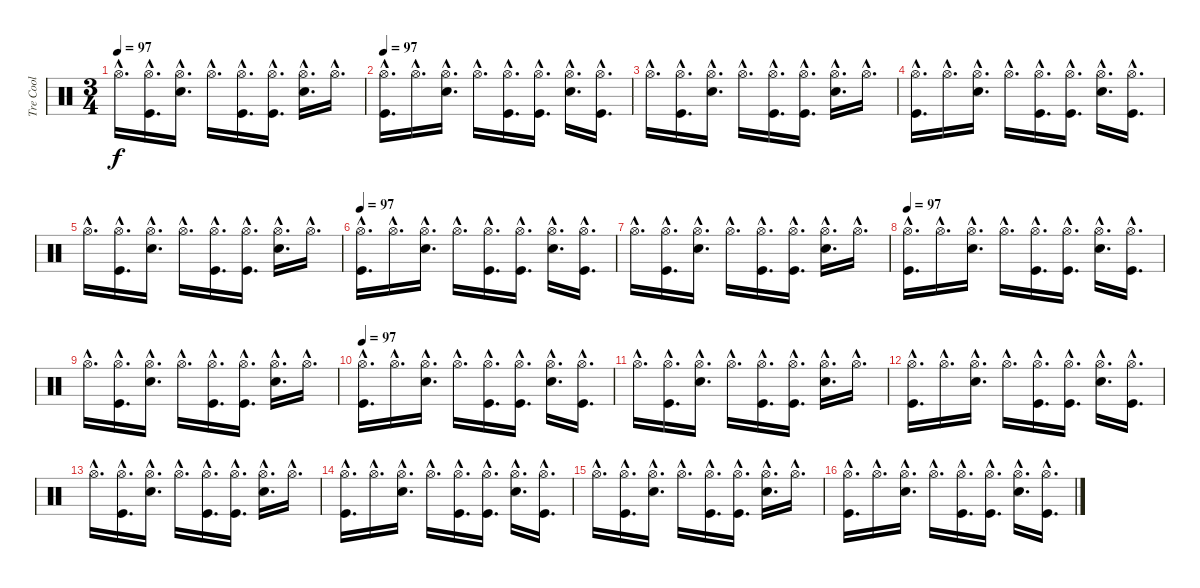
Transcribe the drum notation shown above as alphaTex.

\track ("Tre Cool" "Tre Cool") {instrument percussion}
\staff {score}
\articulation defaults
\ts (3 4)
\tempo 97
\clef neutral
\ks c "Hi-Hat (open)"{hac}.16{d dy f}
("Kick (hit)"{hac} "Hi-Hat (open)"{hac}).16{d} ("Snare (hit) 2"{hac} "Hi-Hat (open)"{hac}).16{d} "Hi-Hat (open)"{hac}.16{d} ("Kick (hit)"{hac} "Hi-Hat (open)"{hac}).16{d} ("Kick (hit)"{hac} "Hi-Hat (open)"{hac}).16{d} ("Snare (hit) 2"{hac} "Hi-Hat (open)"{hac}).16{d} "Hi-Hat (open)"{hac}.16{d} |
\tempo 97
("Kick (hit)"{hac} "Hi-Hat (open)"{hac}).16{d} "Hi-Hat (open)"{hac}.16{d} ("Snare (hit) 2"{hac} "Hi-Hat (open)"{hac}).16{d} "Hi-Hat (open)"{hac}.16{d} ("Kick (hit)"{hac} "Hi-Hat (open)"{hac}).16{d} ("Kick (hit)"{hac} "Hi-Hat (open)"{hac}).16{d} ("Snare (hit) 2"{hac} "Hi-Hat (open)"{hac}).16{d} ("Kick (hit)"{hac} "Hi-Hat (open)"{hac}).16{d} |
"Hi-Hat (open)"{hac}.16{d} ("Kick (hit)"{hac} "Hi-Hat (open)"{hac}).16{d} ("Snare (hit) 2"{hac} "Hi-Hat (open)"{hac}).16{d} "Hi-Hat (open)"{hac}.16{d} ("Kick (hit)"{hac} "Hi-Hat (open)"{hac}).16{d} ("Kick (hit)"{hac} "Hi-Hat (open)"{hac}).16{d} ("Snare (hit) 2"{hac} "Hi-Hat (open)"{hac}).16{d} "Hi-Hat (open)"{hac}.16{d} |
("Kick (hit)"{hac} "Hi-Hat (open)"{hac}).16{d} "Hi-Hat (open)"{hac}.16{d} ("Snare (hit) 2"{hac} "Hi-Hat (open)"{hac}).16{d} "Hi-Hat (open)"{hac}.16{d} ("Kick (hit)"{hac} "Hi-Hat (open)"{hac}).16{d} ("Kick (hit)"{hac} "Hi-Hat (open)"{hac}).16{d} ("Snare (hit) 2"{hac} "Hi-Hat (open)"{hac}).16{d} ("Kick (hit)"{hac} "Hi-Hat (open)"{hac}).16{d} |
"Hi-Hat (open)"{hac}.16{d} ("Kick (hit)"{hac} "Hi-Hat (open)"{hac}).16{d} ("Snare (hit) 2"{hac} "Hi-Hat (open)"{hac}).16{d} "Hi-Hat (open)"{hac}.16{d} ("Kick (hit)"{hac} "Hi-Hat (open)"{hac}).16{d} ("Kick (hit)"{hac} "Hi-Hat (open)"{hac}).16{d} ("Snare (hit) 2"{hac} "Hi-Hat (open)"{hac}).16{d} "Hi-Hat (open)"{hac}.16{d} |
\tempo 97
("Kick (hit)"{hac} "Hi-Hat (open)"{hac}).16{d} "Hi-Hat (open)"{hac}.16{d} ("Snare (hit) 2"{hac} "Hi-Hat (open)"{hac}).16{d} "Hi-Hat (open)"{hac}.16{d} ("Kick (hit)"{hac} "Hi-Hat (open)"{hac}).16{d} ("Kick (hit)"{hac} "Hi-Hat (open)"{hac}).16{d} ("Snare (hit) 2"{hac} "Hi-Hat (open)"{hac}).16{d} ("Kick (hit)"{hac} "Hi-Hat (open)"{hac}).16{d} |
"Hi-Hat (open)"{hac}.16{d} ("Kick (hit)"{hac} "Hi-Hat (open)"{hac}).16{d} ("Snare (hit) 2"{hac} "Hi-Hat (open)"{hac}).16{d} "Hi-Hat (open)"{hac}.16{d} ("Kick (hit)"{hac} "Hi-Hat (open)"{hac}).16{d} ("Kick (hit)"{hac} "Hi-Hat (open)"{hac}).16{d} ("Snare (hit) 2"{hac} "Hi-Hat (open)"{hac}).16{d} "Hi-Hat (open)"{hac}.16{d} |
\tempo 97
("Kick (hit)"{hac} "Hi-Hat (open)"{hac}).16{d} "Hi-Hat (open)"{hac}.16{d} ("Snare (hit) 2"{hac} "Hi-Hat (open)"{hac}).16{d} "Hi-Hat (open)"{hac}.16{d} ("Kick (hit)"{hac} "Hi-Hat (open)"{hac}).16{d} ("Kick (hit)"{hac} "Hi-Hat (open)"{hac}).16{d} ("Snare (hit) 2"{hac} "Hi-Hat (open)"{hac}).16{d} ("Kick (hit)"{hac} "Hi-Hat (open)"{hac}).16{d} |
"Hi-Hat (open)"{hac}.16{d} ("Kick (hit)"{hac} "Hi-Hat (open)"{hac}).16{d} ("Snare (hit) 2"{hac} "Hi-Hat (open)"{hac}).16{d} "Hi-Hat (open)"{hac}.16{d} ("Kick (hit)"{hac} "Hi-Hat (open)"{hac}).16{d} ("Kick (hit)"{hac} "Hi-Hat (open)"{hac}).16{d} ("Snare (hit) 2"{hac} "Hi-Hat (open)"{hac}).16{d} "Hi-Hat (open)"{hac}.16{d} |
\tempo 97
("Kick (hit)"{hac} "Hi-Hat (open)"{hac}).16{d} "Hi-Hat (open)"{hac}.16{d} ("Snare (hit) 2"{hac} "Hi-Hat (open)"{hac}).16{d} "Hi-Hat (open)"{hac}.16{d} ("Kick (hit)"{hac} "Hi-Hat (open)"{hac}).16{d} ("Kick (hit)"{hac} "Hi-Hat (open)"{hac}).16{d} ("Snare (hit) 2"{hac} "Hi-Hat (open)"{hac}).16{d} ("Kick (hit)"{hac} "Hi-Hat (open)"{hac}).16{d} |
"Hi-Hat (open)"{hac}.16{d} ("Kick (hit)"{hac} "Hi-Hat (open)"{hac}).16{d} ("Snare (hit) 2"{hac} "Hi-Hat (open)"{hac}).16{d} "Hi-Hat (open)"{hac}.16{d} ("Kick (hit)"{hac} "Hi-Hat (open)"{hac}).16{d} ("Kick (hit)"{hac} "Hi-Hat (open)"{hac}).16{d} ("Snare (hit) 2"{hac} "Hi-Hat (open)"{hac}).16{d} "Hi-Hat (open)"{hac}.16{d} |
("Kick (hit)"{hac} "Hi-Hat (open)"{hac}).16{d} "Hi-Hat (open)"{hac}.16{d} ("Snare (hit) 2"{hac} "Hi-Hat (open)"{hac}).16{d} "Hi-Hat (open)"{hac}.16{d} ("Kick (hit)"{hac} "Hi-Hat (open)"{hac}).16{d} ("Kick (hit)"{hac} "Hi-Hat (open)"{hac}).16{d} ("Snare (hit) 2"{hac} "Hi-Hat (open)"{hac}).16{d} ("Kick (hit)"{hac} "Hi-Hat (open)"{hac}).16{d} |
"Hi-Hat (open)"{hac}.16{d} ("Kick (hit)"{hac} "Hi-Hat (open)"{hac}).16{d} ("Snare (hit) 2"{hac} "Hi-Hat (open)"{hac}).16{d} "Hi-Hat (open)"{hac}.16{d} ("Kick (hit)"{hac} "Hi-Hat (open)"{hac}).16{d} ("Kick (hit)"{hac} "Hi-Hat (open)"{hac}).16{d} ("Snare (hit) 2"{hac} "Hi-Hat (open)"{hac}).16{d} "Hi-Hat (open)"{hac}.16{d} |
("Kick (hit)"{hac} "Hi-Hat (open)"{hac}).16{d} "Hi-Hat (open)"{hac}.16{d} ("Snare (hit) 2"{hac} "Hi-Hat (open)"{hac}).16{d} "Hi-Hat (open)"{hac}.16{d} ("Kick (hit)"{hac} "Hi-Hat (open)"{hac}).16{d} ("Kick (hit)"{hac} "Hi-Hat (open)"{hac}).16{d} ("Snare (hit) 2"{hac} "Hi-Hat (open)"{hac}).16{d} ("Kick (hit)"{hac} "Hi-Hat (open)"{hac}).16{d} |
"Hi-Hat (open)"{hac}.16{d} ("Kick (hit)"{hac} "Hi-Hat (open)"{hac}).16{d} ("Snare (hit) 2"{hac} "Hi-Hat (open)"{hac}).16{d} "Hi-Hat (open)"{hac}.16{d} ("Kick (hit)"{hac} "Hi-Hat (open)"{hac}).16{d} ("Kick (hit)"{hac} "Hi-Hat (open)"{hac}).16{d} ("Snare (hit) 2"{hac} "Hi-Hat (open)"{hac}).16{d} "Hi-Hat (open)"{hac}.16{d} |
("Kick (hit)"{hac} "Hi-Hat (open)"{hac}).16{d} "Hi-Hat (open)"{hac}.16{d} ("Snare (hit) 2"{hac} "Hi-Hat (open)"{hac}).16{d} "Hi-Hat (open)"{hac}.16{d} ("Kick (hit)"{hac} "Hi-Hat (open)"{hac}).16{d} ("Kick (hit)"{hac} "Hi-Hat (open)"{hac}).16{d} ("Snare (hit) 2"{hac} "Hi-Hat (open)"{hac}).16{d} ("Kick (hit)"{hac} "Hi-Hat (open)"{hac}).16{d}
